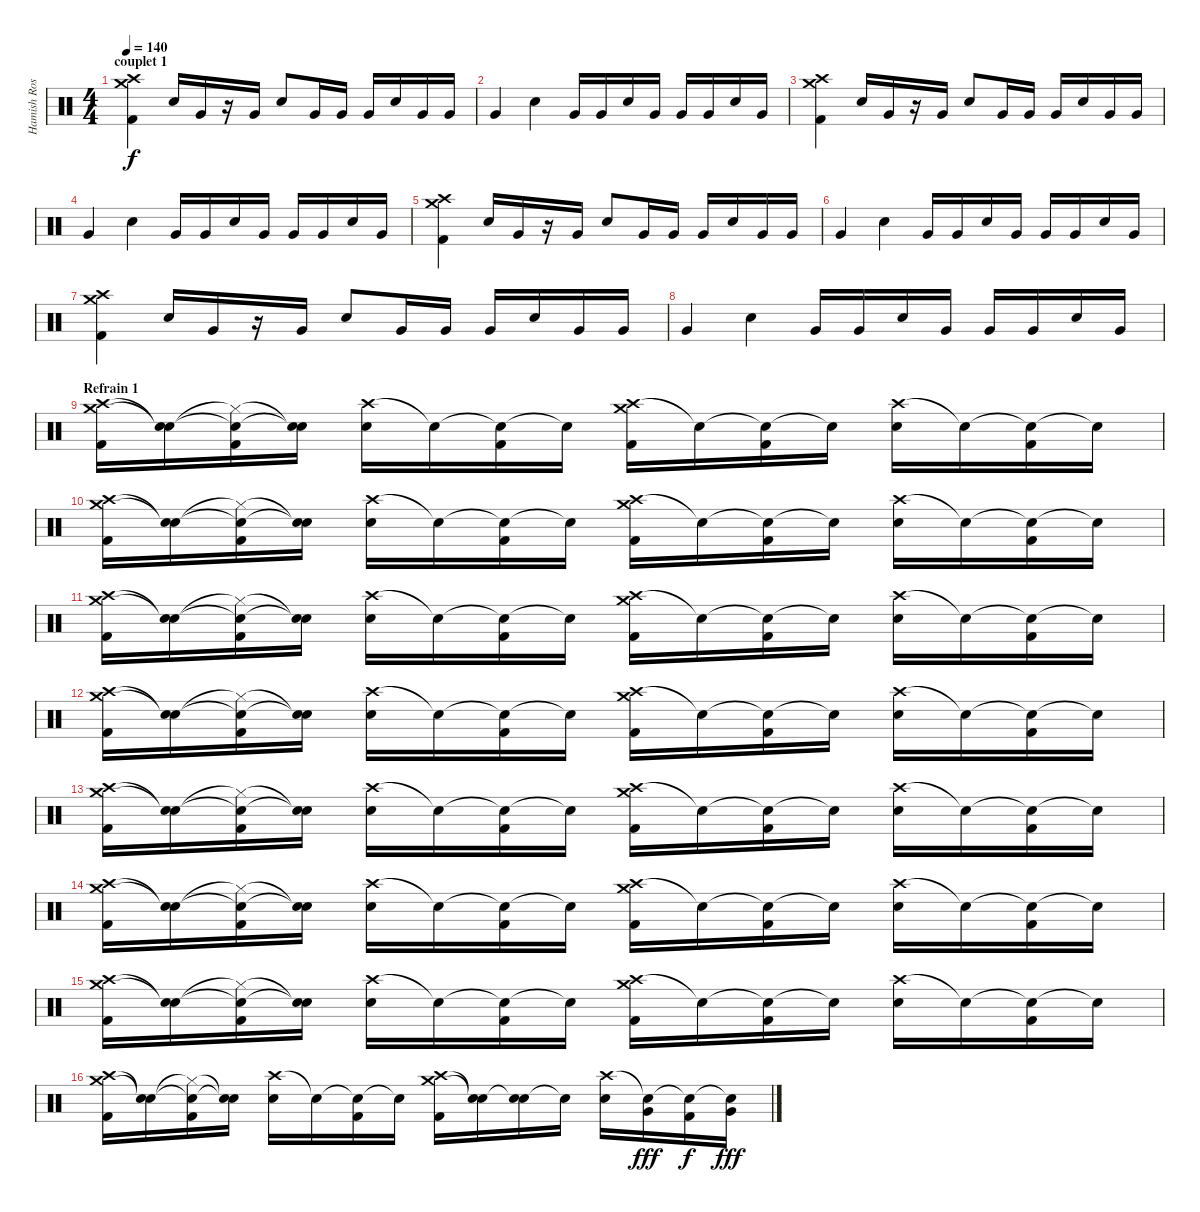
\track ("Hamish Rosser" "Hamish Ros") {instrument percussion}
\staff {score}
\articulation defaults
\ts (4 4)
\section ("" "couplet 1")
\tempo 140
\clef neutral
\ks c
("Crash medium (hit)" "Crash high (hit)" "Kick (hit) 2").4{dy f} "Snare (hit) 2".16 "Very Low Tom (hit)".16 r.16 "Very Low Tom (hit)".16 "Snare (hit) 2".8 "Very Low Tom (hit)".16 "Very Low Tom (hit)".16 "Very Low Tom (hit)".16 "Snare (hit) 2".16 "Very Low Tom (hit)".16 "Very Low Tom (hit)".16 |
"Very Low Tom (hit)".4 "Snare (hit) 2".4 "Very Low Tom (hit)".16 "Very Low Tom (hit)".16 "Snare (hit) 2".16 "Very Low Tom (hit)".16 "Very Low Tom (hit)".16 "Very Low Tom (hit)".16 "Snare (hit) 2".16 "Very Low Tom (hit)".16 |
("Crash medium (hit)" "Crash high (hit)" "Kick (hit) 2").4 "Snare (hit) 2".16 "Very Low Tom (hit)".16 r.16 "Very Low Tom (hit)".16 "Snare (hit) 2".8 "Very Low Tom (hit)".16 "Very Low Tom (hit)".16 "Very Low Tom (hit)".16 "Snare (hit) 2".16 "Very Low Tom (hit)".16 "Very Low Tom (hit)".16 |
"Very Low Tom (hit)".4 "Snare (hit) 2".4 "Very Low Tom (hit)".16 "Very Low Tom (hit)".16 "Snare (hit) 2".16 "Very Low Tom (hit)".16 "Very Low Tom (hit)".16 "Very Low Tom (hit)".16 "Snare (hit) 2".16 "Very Low Tom (hit)".16 |
("Crash medium (hit)" "Crash high (hit)" "Kick (hit) 2").4 "Snare (hit) 2".16 "Very Low Tom (hit)".16 r.16 "Very Low Tom (hit)".16 "Snare (hit) 2".8 "Very Low Tom (hit)".16 "Very Low Tom (hit)".16 "Very Low Tom (hit)".16 "Snare (hit) 2".16 "Very Low Tom (hit)".16 "Very Low Tom (hit)".16 |
"Very Low Tom (hit)".4 "Snare (hit) 2".4 "Very Low Tom (hit)".16 "Very Low Tom (hit)".16 "Snare (hit) 2".16 "Very Low Tom (hit)".16 "Very Low Tom (hit)".16 "Very Low Tom (hit)".16 "Snare (hit) 2".16 "Very Low Tom (hit)".16 |
("Crash medium (hit)" "Crash high (hit)" "Kick (hit) 2").4 "Snare (hit) 2".16 "Very Low Tom (hit)".16 r.16 "Very Low Tom (hit)".16 "Snare (hit) 2".8 "Very Low Tom (hit)".16 "Very Low Tom (hit)".16 "Very Low Tom (hit)".16 "Snare (hit) 2".16 "Very Low Tom (hit)".16 "Very Low Tom (hit)".16 |
"Very Low Tom (hit)".4 "Snare (hit) 2".4 "Very Low Tom (hit)".16 "Very Low Tom (hit)".16 "Snare (hit) 2".16 "Very Low Tom (hit)".16 "Very Low Tom (hit)".16 "Very Low Tom (hit)".16 "Snare (hit) 2".16 "Very Low Tom (hit)".16 |
\section ("" "Refrain 1")
("Crash high (hit)" "Crash medium (hit)" "Kick (hit) 2").16 ("Snare (hit)"{t} "Snare (hit)"{t}).16 ("Snare (hit)"{t} "Hi-Hat (closed)"{t} "Kick (hit) 2").16 ("Snare (hit)"{t} "Snare (hit)"{t}).16 ("Crash high (hit)" "Electric Snare (hit)").16 "Snare (hit)"{t}.16 ("Snare (hit)"{t} "Kick (hit) 2").16 "Snare (hit)"{t}.16 ("Crash high (hit)" "Crash medium (hit)" "Kick (hit) 2").16 "Snare (hit)"{t}.16 ("Snare (hit)"{t} "Kick (hit) 2").16 "Snare (hit)"{t}.16 ("Crash high (hit)" "Electric Snare (hit)").16 "Snare (hit)"{t}.16 ("Snare (hit)"{t} "Kick (hit) 2").16 "Snare (hit)"{t}.16 |
("Crash high (hit)" "Crash medium (hit)" "Kick (hit) 2").16 ("Snare (hit)"{t} "Snare (hit)"{t}).16 ("Snare (hit)"{t} "Hi-Hat (closed)"{t} "Kick (hit) 2").16 ("Snare (hit)"{t} "Snare (hit)"{t}).16 ("Crash high (hit)" "Electric Snare (hit)").16 "Snare (hit)"{t}.16 ("Snare (hit)"{t} "Kick (hit) 2").16 "Snare (hit)"{t}.16 ("Crash high (hit)" "Crash medium (hit)" "Kick (hit) 2").16 "Snare (hit)"{t}.16 ("Snare (hit)"{t} "Kick (hit) 2").16 "Snare (hit)"{t}.16 ("Crash high (hit)" "Electric Snare (hit)").16 "Snare (hit)"{t}.16 ("Snare (hit)"{t} "Kick (hit) 2").16 "Snare (hit)"{t}.16 |
("Crash high (hit)" "Crash medium (hit)" "Kick (hit) 2").16 ("Snare (hit)"{t} "Snare (hit)"{t}).16 ("Snare (hit)"{t} "Hi-Hat (closed)"{t} "Kick (hit) 2").16 ("Snare (hit)"{t} "Snare (hit)"{t}).16 ("Crash high (hit)" "Electric Snare (hit)").16 "Snare (hit)"{t}.16 ("Snare (hit)"{t} "Kick (hit) 2").16 "Snare (hit)"{t}.16 ("Crash high (hit)" "Crash medium (hit)" "Kick (hit) 2").16 "Snare (hit)"{t}.16 ("Snare (hit)"{t} "Kick (hit) 2").16 "Snare (hit)"{t}.16 ("Crash high (hit)" "Electric Snare (hit)").16 "Snare (hit)"{t}.16 ("Snare (hit)"{t} "Kick (hit) 2").16 "Snare (hit)"{t}.16 |
("Crash high (hit)" "Crash medium (hit)" "Kick (hit) 2").16 ("Snare (hit)"{t} "Snare (hit)"{t}).16 ("Snare (hit)"{t} "Hi-Hat (closed)"{t} "Kick (hit) 2").16 ("Snare (hit)"{t} "Snare (hit)"{t}).16 ("Crash high (hit)" "Electric Snare (hit)").16 "Snare (hit)"{t}.16 ("Snare (hit)"{t} "Kick (hit) 2").16 "Snare (hit)"{t}.16 ("Crash high (hit)" "Crash medium (hit)" "Kick (hit) 2").16 "Snare (hit)"{t}.16 ("Snare (hit)"{t} "Kick (hit) 2").16 "Snare (hit)"{t}.16 ("Crash high (hit)" "Electric Snare (hit)").16 "Snare (hit)"{t}.16 ("Snare (hit)"{t} "Kick (hit) 2").16 "Snare (hit)"{t}.16 |
("Crash high (hit)" "Crash medium (hit)" "Kick (hit) 2").16 ("Snare (hit)"{t} "Snare (hit)"{t}).16 ("Snare (hit)"{t} "Hi-Hat (closed)"{t} "Kick (hit) 2").16 ("Snare (hit)"{t} "Snare (hit)"{t}).16 ("Crash high (hit)" "Electric Snare (hit)").16 "Snare (hit)"{t}.16 ("Snare (hit)"{t} "Kick (hit) 2").16 "Snare (hit)"{t}.16 ("Crash high (hit)" "Crash medium (hit)" "Kick (hit) 2").16 "Snare (hit)"{t}.16 ("Snare (hit)"{t} "Kick (hit) 2").16 "Snare (hit)"{t}.16 ("Crash high (hit)" "Electric Snare (hit)").16 "Snare (hit)"{t}.16 ("Snare (hit)"{t} "Kick (hit) 2").16 "Snare (hit)"{t}.16 |
("Crash high (hit)" "Crash medium (hit)" "Kick (hit) 2").16 ("Snare (hit)"{t} "Snare (hit)"{t}).16 ("Snare (hit)"{t} "Hi-Hat (closed)"{t} "Kick (hit) 2").16 ("Snare (hit)"{t} "Snare (hit)"{t}).16 ("Crash high (hit)" "Electric Snare (hit)").16 "Snare (hit)"{t}.16 ("Snare (hit)"{t} "Kick (hit) 2").16 "Snare (hit)"{t}.16 ("Crash high (hit)" "Crash medium (hit)" "Kick (hit) 2").16 "Snare (hit)"{t}.16 ("Snare (hit)"{t} "Kick (hit) 2").16 "Snare (hit)"{t}.16 ("Crash high (hit)" "Electric Snare (hit)").16 "Snare (hit)"{t}.16 ("Snare (hit)"{t} "Kick (hit) 2").16 "Snare (hit)"{t}.16 |
("Crash high (hit)" "Crash medium (hit)" "Kick (hit) 2").16 ("Snare (hit)"{t} "Snare (hit)"{t}).16 ("Snare (hit)"{t} "Hi-Hat (closed)"{t} "Kick (hit) 2").16 ("Snare (hit)"{t} "Snare (hit)"{t}).16 ("Crash high (hit)" "Electric Snare (hit)").16 "Snare (hit)"{t}.16 ("Snare (hit)"{t} "Kick (hit) 2").16 "Snare (hit)"{t}.16 ("Crash high (hit)" "Crash medium (hit)" "Kick (hit) 2").16 "Snare (hit)"{t}.16 ("Snare (hit)"{t} "Kick (hit) 2").16 "Snare (hit)"{t}.16 ("Crash high (hit)" "Electric Snare (hit)").16 "Snare (hit)"{t}.16 ("Snare (hit)"{t} "Kick (hit) 2").16 "Snare (hit)"{t}.16 |
("Crash high (hit)" "Crash medium (hit)" "Kick (hit) 2").16 ("Snare (hit)"{t} "Snare (hit)"{t}).16 ("Snare (hit)"{t} "Hi-Hat (closed)"{t} "Kick (hit) 2").16 ("Snare (hit)"{t} "Snare (hit)"{t}).16 ("Crash high (hit)" "Electric Snare (hit)").16 "Snare (hit)"{t}.16 ("Snare (hit)"{t} "Kick (hit) 2").16 "Snare (hit)"{t}.16 ("Crash high (hit)" "Crash medium (hit)" "Kick (hit) 2").16 ("Snare (hit)"{t} "Snare (hit)"{t}).16 ("Snare (hit)"{t} "Electric Snare (hit)").16 "Snare (hit)"{t}.16 ("Crash high (hit)" "Electric Snare (hit)").16 ("Snare (hit)"{t} "Very Low Tom (hit)").16{dy fff} ("Snare (hit)"{t} "Kick (hit) 2").16{dy f} ("Snare (hit)"{t} "Very Low Tom (hit)").16{dy fff}
